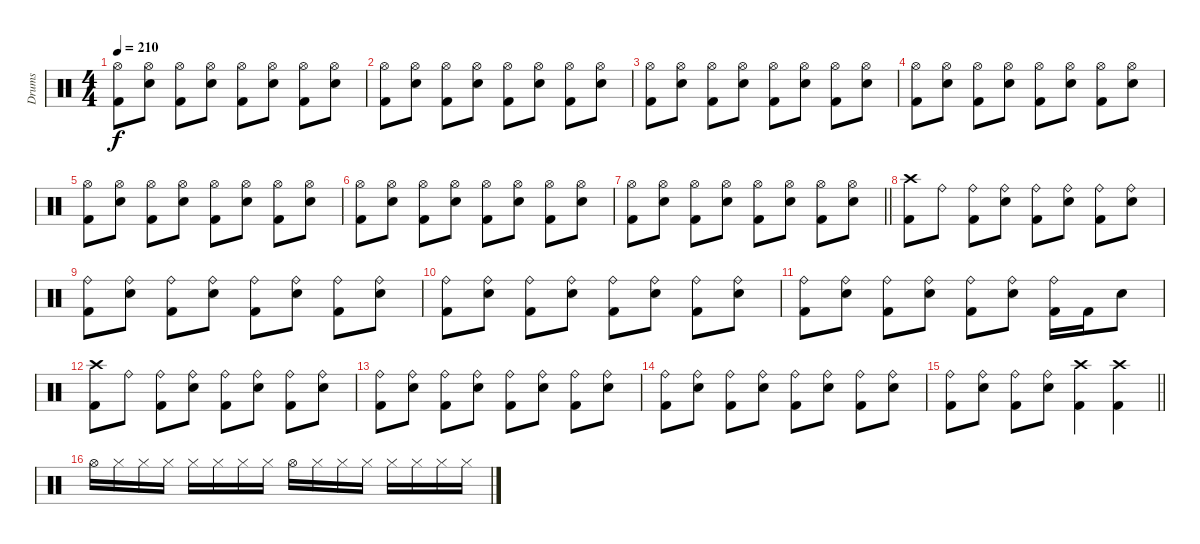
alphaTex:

\track ("Drums" "Drums") {instrument percussion}
\staff {score}
\articulation defaults
\ts (4 4)
\tempo 210
\clef neutral
\ks c
("Hi-Hat (open)" "Kick (hit) 2").8{dy f} ("Hi-Hat (open)" "Snare (hit) 2").8 ("Hi-Hat (open)" "Kick (hit) 2").8 ("Hi-Hat (open)" "Snare (hit) 2").8 ("Hi-Hat (open)" "Kick (hit) 2").8 ("Hi-Hat (open)" "Snare (hit) 2").8 ("Hi-Hat (open)" "Kick (hit) 2").8 ("Hi-Hat (open)" "Snare (hit) 2").8 |
("Hi-Hat (open)" "Kick (hit) 2").8 ("Hi-Hat (open)" "Snare (hit) 2").8 ("Hi-Hat (open)" "Kick (hit) 2").8 ("Hi-Hat (open)" "Snare (hit) 2").8 ("Hi-Hat (open)" "Kick (hit) 2").8 ("Hi-Hat (open)" "Snare (hit) 2").8 ("Hi-Hat (open)" "Kick (hit) 2").8 ("Hi-Hat (open)" "Snare (hit) 2").8 |
("Hi-Hat (open)" "Kick (hit) 2").8 ("Hi-Hat (open)" "Snare (hit) 2").8 ("Hi-Hat (open)" "Kick (hit) 2").8 ("Hi-Hat (open)" "Snare (hit) 2").8 ("Hi-Hat (open)" "Kick (hit) 2").8 ("Hi-Hat (open)" "Snare (hit) 2").8 ("Hi-Hat (open)" "Kick (hit) 2").8 ("Hi-Hat (open)" "Snare (hit) 2").8 |
("Hi-Hat (open)" "Kick (hit) 2").8 ("Hi-Hat (open)" "Snare (hit) 2").8 ("Hi-Hat (open)" "Kick (hit) 2").8 ("Hi-Hat (open)" "Snare (hit) 2").8 ("Hi-Hat (open)" "Kick (hit) 2").8 ("Hi-Hat (open)" "Snare (hit) 2").8 ("Hi-Hat (open)" "Kick (hit) 2").8 ("Hi-Hat (open)" "Snare (hit) 2").8 |
("Hi-Hat (open)" "Kick (hit) 2").8 ("Hi-Hat (open)" "Snare (hit) 2").8 ("Hi-Hat (open)" "Kick (hit) 2").8 ("Hi-Hat (open)" "Snare (hit) 2").8 ("Hi-Hat (open)" "Kick (hit) 2").8 ("Hi-Hat (open)" "Snare (hit) 2").8 ("Hi-Hat (open)" "Kick (hit) 2").8 ("Hi-Hat (open)" "Snare (hit) 2").8 |
("Hi-Hat (open)" "Kick (hit) 2").8 ("Hi-Hat (open)" "Snare (hit) 2").8 ("Hi-Hat (open)" "Kick (hit) 2").8 ("Hi-Hat (open)" "Snare (hit) 2").8 ("Hi-Hat (open)" "Kick (hit) 2").8 ("Hi-Hat (open)" "Snare (hit) 2").8 ("Hi-Hat (open)" "Kick (hit) 2").8 ("Hi-Hat (open)" "Snare (hit) 2").8 |
\barLineRight lightlight
("Hi-Hat (open)" "Kick (hit) 2").8 ("Hi-Hat (open)" "Snare (hit) 2").8 ("Hi-Hat (open)" "Kick (hit) 2").8 ("Hi-Hat (open)" "Snare (hit) 2").8 ("Hi-Hat (open)" "Kick (hit) 2").8 ("Hi-Hat (open)" "Snare (hit) 2").8 ("Hi-Hat (open)" "Kick (hit) 2").8 ("Hi-Hat (open)" "Snare (hit) 2").8 |
("Crash high (hit)" "Kick (hit) 2").8 "Ride (bell)".8 ("Ride (bell)" "Kick (hit) 2").8 ("Ride (bell)" "Snare (hit) 2").8 ("Ride (bell)" "Kick (hit) 2").8 ("Ride (bell)" "Snare (hit) 2").8 ("Ride (bell)" "Kick (hit) 2").8 ("Ride (bell)" "Snare (hit) 2").8 |
("Ride (bell)" "Kick (hit) 2").8 ("Ride (bell)" "Snare (hit) 2").8 ("Ride (bell)" "Kick (hit) 2").8 ("Ride (bell)" "Snare (hit) 2").8 ("Ride (bell)" "Kick (hit) 2").8 ("Ride (bell)" "Snare (hit) 2").8 ("Ride (bell)" "Kick (hit) 2").8 ("Ride (bell)" "Snare (hit) 2").8 |
("Ride (bell)" "Kick (hit) 2").8 ("Ride (bell)" "Snare (hit) 2").8 ("Ride (bell)" "Kick (hit) 2").8 ("Ride (bell)" "Snare (hit) 2").8 ("Ride (bell)" "Kick (hit) 2").8 ("Ride (bell)" "Snare (hit) 2").8 ("Ride (bell)" "Kick (hit) 2").8 ("Ride (bell)" "Snare (hit) 2").8 |
("Ride (bell)" "Kick (hit) 2").8 ("Ride (bell)" "Snare (hit) 2").8 ("Ride (bell)" "Kick (hit) 2").8 ("Ride (bell)" "Snare (hit) 2").8 ("Ride (bell)" "Kick (hit) 2").8 ("Ride (bell)" "Snare (hit) 2").8 ("Ride (bell)" "Kick (hit) 2").16 "Kick (hit) 2".16 "Snare (hit) 2".8 |
("Crash high (hit)" "Kick (hit) 2").8 "Ride (bell)".8 ("Ride (bell)" "Kick (hit) 2").8 ("Ride (bell)" "Snare (hit) 2").8 ("Ride (bell)" "Kick (hit) 2").8 ("Ride (bell)" "Snare (hit) 2").8 ("Ride (bell)" "Kick (hit) 2").8 ("Ride (bell)" "Snare (hit) 2").8 |
("Ride (bell)" "Kick (hit) 2").8 ("Ride (bell)" "Snare (hit) 2").8 ("Ride (bell)" "Kick (hit) 2").8 ("Ride (bell)" "Snare (hit) 2").8 ("Ride (bell)" "Kick (hit) 2").8 ("Ride (bell)" "Snare (hit) 2").8 ("Ride (bell)" "Kick (hit) 2").8 ("Ride (bell)" "Snare (hit) 2").8 |
("Ride (bell)" "Kick (hit) 2").8 ("Ride (bell)" "Snare (hit) 2").8 ("Ride (bell)" "Kick (hit) 2").8 ("Ride (bell)" "Snare (hit) 2").8 ("Ride (bell)" "Kick (hit) 2").8 ("Ride (bell)" "Snare (hit) 2").8 ("Ride (bell)" "Kick (hit) 2").8 ("Ride (bell)" "Snare (hit) 2").8 |
\barLineRight lightlight
("Ride (bell)" "Kick (hit) 2").8 ("Ride (bell)" "Snare (hit) 2").8 ("Ride (bell)" "Kick (hit) 2").8 ("Ride (bell)" "Snare (hit) 2").8 ("Crash high (hit)" "Kick (hit) 2").4 ("Crash high (hit)" "Kick (hit) 2").4 |
"Hi-Hat (open)".16 "Hi-Hat (closed)".16 "Hi-Hat (closed)".16 "Hi-Hat (closed)".16 "Hi-Hat (closed)".16 "Hi-Hat (closed)".16 "Hi-Hat (closed)".16 "Hi-Hat (closed)".16 "Hi-Hat (open)".16 "Hi-Hat (closed)".16 "Hi-Hat (closed)".16 "Hi-Hat (closed)".16 "Hi-Hat (closed)".16 "Hi-Hat (closed)".16 "Hi-Hat (closed)".16 "Hi-Hat (closed)".16
